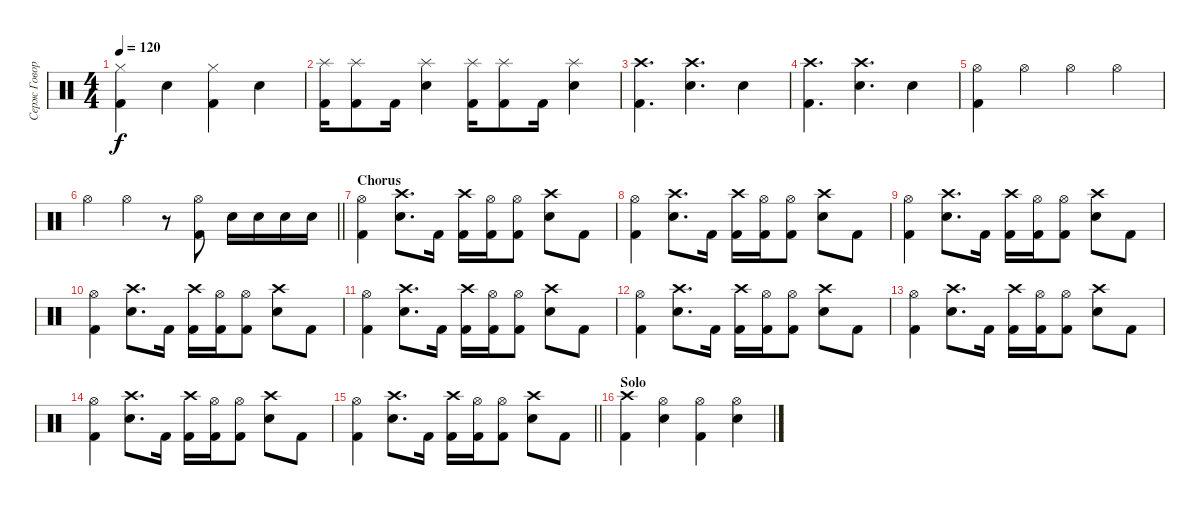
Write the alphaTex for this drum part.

\track ("Серж Говорун" "Серж Говор") {instrument percussion}
\staff {score}
\articulation defaults
\ts (4 4)
\tempo 120
\clef neutral
\ks c
("Hi-Hat (closed)" "Kick (hit) 2").4{dy f} "Electric Snare (hit)".4 ("Hi-Hat (closed)" "Kick (hit) 2").4 "Electric Snare (hit)".4 |
("Splash (hit)" "Kick (hit) 2").16 ("Splash (hit)" "Kick (hit) 2").8 "Kick (hit) 2".16 ("Splash (hit)" "Electric Snare (hit)").4 ("Splash (hit)" "Kick (hit) 2").16 ("Splash (hit)" "Kick (hit) 2").8 "Kick (hit) 2".16 ("Splash (hit)" "Electric Snare (hit)").4 |
("Crash high (hit)" "Kick (hit) 2").4{d} ("Electric Snare (hit)" "Crash high (hit)").4{d} "Electric Snare (hit)".4 |
("Crash high (hit)" "Kick (hit) 2").4{d} ("Electric Snare (hit)" "Crash high (hit)").4{d} "Electric Snare (hit)".4 |
("Hi-Hat (open)" "Kick (hit) 2").4 "Hi-Hat (open)".4 "Hi-Hat (open)".4 "Hi-Hat (open)".4 |
\barLineRight lightlight "Hi-Hat (open)".4 "Hi-Hat (open)".4
r.8 ("Kick (hit) 2" "Hi-Hat (open)").8 "Electric Snare (hit)".16 "Electric Snare (hit)".16 "Electric Snare (hit)".16 "Electric Snare (hit)".16 |
\section ("" "Chorus")
("Hi-Hat (open)" "Kick (hit) 2").4 ("Crash high (hit)" "Electric Snare (hit)").8{d} "Kick (hit) 2".16 ("Kick (hit) 2" "Crash high (hit)").16 ("Kick (hit) 2" "Hi-Hat (open)").16 ("Kick (hit) 2" "Hi-Hat (open)").8 ("Electric Snare (hit)" "Crash high (hit)").8 "Kick (hit) 2".8 |
("Hi-Hat (open)" "Kick (hit) 2").4 ("Crash high (hit)" "Electric Snare (hit)").8{d} "Kick (hit) 2".16 ("Kick (hit) 2" "Crash high (hit)").16 ("Kick (hit) 2" "Hi-Hat (open)").16 ("Kick (hit) 2" "Hi-Hat (open)").8 ("Electric Snare (hit)" "Crash high (hit)").8 "Kick (hit) 2".8 |
("Hi-Hat (open)" "Kick (hit) 2").4 ("Crash high (hit)" "Electric Snare (hit)").8{d} "Kick (hit) 2".16 ("Kick (hit) 2" "Crash high (hit)").16 ("Kick (hit) 2" "Hi-Hat (open)").16 ("Kick (hit) 2" "Hi-Hat (open)").8 ("Electric Snare (hit)" "Crash high (hit)").8 "Kick (hit) 2".8 |
("Hi-Hat (open)" "Kick (hit) 2").4 ("Crash high (hit)" "Electric Snare (hit)").8{d} "Kick (hit) 2".16 ("Kick (hit) 2" "Crash high (hit)").16 ("Kick (hit) 2" "Hi-Hat (open)").16 ("Kick (hit) 2" "Hi-Hat (open)").8 ("Electric Snare (hit)" "Crash high (hit)").8 "Kick (hit) 2".8 |
("Hi-Hat (open)" "Kick (hit) 2").4 ("Crash high (hit)" "Electric Snare (hit)").8{d} "Kick (hit) 2".16 ("Kick (hit) 2" "Crash high (hit)").16 ("Kick (hit) 2" "Hi-Hat (open)").16 ("Kick (hit) 2" "Hi-Hat (open)").8 ("Electric Snare (hit)" "Crash high (hit)").8 "Kick (hit) 2".8 |
("Hi-Hat (open)" "Kick (hit) 2").4 ("Crash high (hit)" "Electric Snare (hit)").8{d} "Kick (hit) 2".16 ("Kick (hit) 2" "Crash high (hit)").16 ("Kick (hit) 2" "Hi-Hat (open)").16 ("Kick (hit) 2" "Hi-Hat (open)").8 ("Electric Snare (hit)" "Crash high (hit)").8 "Kick (hit) 2".8 |
("Hi-Hat (open)" "Kick (hit) 2").4 ("Crash high (hit)" "Electric Snare (hit)").8{d} "Kick (hit) 2".16 ("Kick (hit) 2" "Crash high (hit)").16 ("Kick (hit) 2" "Hi-Hat (open)").16 ("Kick (hit) 2" "Hi-Hat (open)").8 ("Electric Snare (hit)" "Crash high (hit)").8 "Kick (hit) 2".8 |
("Hi-Hat (open)" "Kick (hit) 2").4 ("Crash high (hit)" "Electric Snare (hit)").8{d} "Kick (hit) 2".16 ("Kick (hit) 2" "Crash high (hit)").16 ("Kick (hit) 2" "Hi-Hat (open)").16 ("Kick (hit) 2" "Hi-Hat (open)").8 ("Electric Snare (hit)" "Crash high (hit)").8 "Kick (hit) 2".8 |
\barLineRight lightlight
("Hi-Hat (open)" "Kick (hit) 2").4 ("Crash high (hit)" "Electric Snare (hit)").8{d} "Kick (hit) 2".16 ("Kick (hit) 2" "Crash high (hit)").16 ("Kick (hit) 2" "Hi-Hat (open)").16 ("Kick (hit) 2" "Hi-Hat (open)").8 ("Electric Snare (hit)" "Crash high (hit)").8 "Kick (hit) 2".8 |
\section ("" "Solo")
("Crash high (hit)" "Kick (hit) 2").4 ("Hi-Hat (open)" "Electric Snare (hit)").4 ("Hi-Hat (open)" "Kick (hit) 2").4 ("Hi-Hat (open)" "Electric Snare (hit)").4
